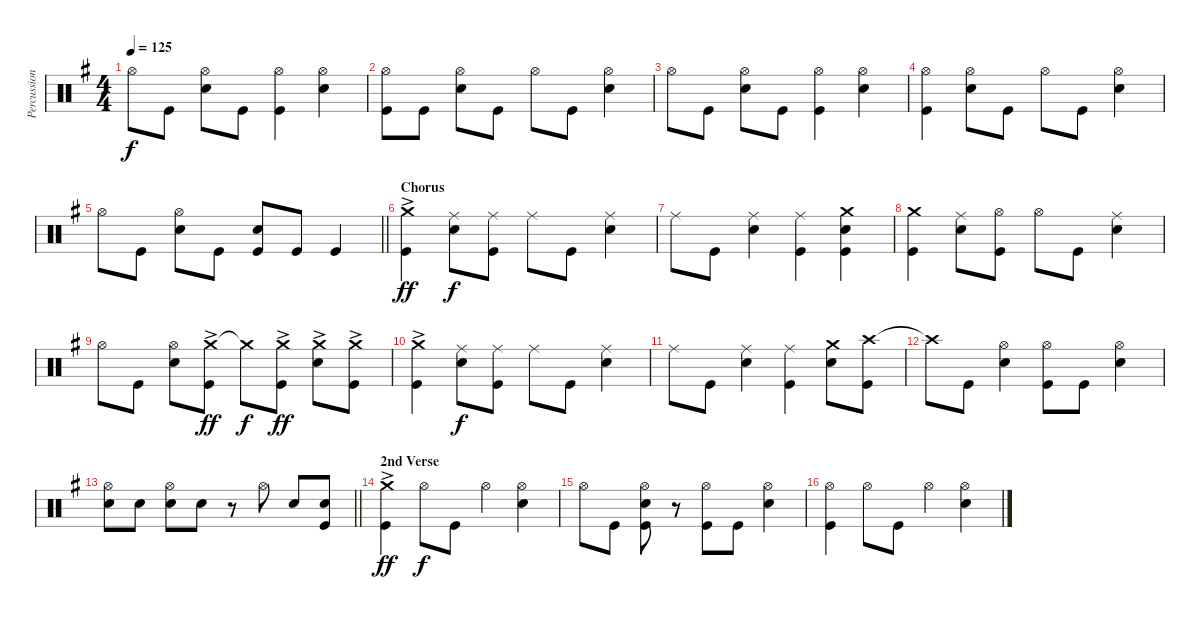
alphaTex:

\track ("Percussion" "Percussion") {instrument percussion}
\staff {score}
\articulation defaults
\ts (4 4)
\tempo 125
\clef neutral
\ks g "Hi-Hat (open)".8{dy f} "Kick (hit)".8
("Hi-Hat (open)" "Snare (hit) 2").8 "Kick (hit)".8 ("Hi-Hat (open)" "Kick (hit)").4 ("Hi-Hat (open)" "Snare (hit) 2").4 |
("Hi-Hat (open)" "Kick (hit)").8 "Kick (hit)".8 ("Hi-Hat (open)" "Snare (hit) 2").8 "Kick (hit)".8 "Hi-Hat (open)".8 "Kick (hit)".8 ("Hi-Hat (open)" "Snare (hit) 2").4 |
"Hi-Hat (open)".8 "Kick (hit)".8 ("Hi-Hat (open)" "Snare (hit) 2").8 "Kick (hit)".8 ("Hi-Hat (open)" "Kick (hit)").4 ("Hi-Hat (open)" "Snare (hit) 2").4 |
("Hi-Hat (open)" "Kick (hit)").4 ("Hi-Hat (open)" "Snare (hit) 2").8 "Kick (hit)".8 "Hi-Hat (open)".8 "Kick (hit)".8 ("Hi-Hat (open)" "Snare (hit) 2").4 |
\barLineRight lightlight "Hi-Hat (open)".8 "Kick (hit)".8
("Hi-Hat (open)" "Snare (hit) 2").8 "Kick (hit)".8 ("Snare (hit) 2" "Kick (hit)").8 "Kick (hit)".8 "Kick (hit)".4 |
\section ("" "Chorus")
("Crash medium (hit)"{ac} "Kick (hit)").4{dy ff} ("Ride (middle)" "Snare (hit) 2").8{dy f} ("Ride (middle)" "Kick (hit)").8 "Ride (middle)".8 "Kick (hit)".8 ("Ride (middle)" "Snare (hit) 2").4 |
"Ride (middle)".8 "Kick (hit)".8 ("Ride (middle)" "Snare (hit) 2").4 ("Ride (middle)" "Kick (hit)").4 ("Crash medium (hit)" "Snare (hit) 2" "Kick (hit)").4 |
("Crash medium (hit)" "Kick (hit)").4 ("Ride (middle)" "Snare (hit) 2").8 ("Hi-Hat (open)" "Kick (hit)").8 "Hi-Hat (open)".8 "Kick (hit)".8 ("Ride (middle)" "Snare (hit) 2").4 |
"Hi-Hat (open)".8 "Kick (hit)".8 ("Hi-Hat (open)" "Snare (hit) 2").8 ("Crash medium (hit)" "Kick (hit)"{ac}).8{dy ff} "Crash medium (hit)"{t}.8{dy f} ("Crash medium (hit)"{ac} "Kick (hit)"{ac}).8{dy ff} ("Crash medium (hit)"{ac} "Snare (hit) 2"{ac}).8 ("Crash medium (hit)"{ac} "Kick (hit)"{ac}).8 |
("Crash medium (hit)"{ac} "Kick (hit)").4 ("Ride (middle)" "Snare (hit) 2").8{dy f} ("Ride (middle)" "Kick (hit)").8 "Ride (middle)".8 "Kick (hit)".8 ("Ride (middle)" "Snare (hit) 2").4 |
"Ride (middle)".8 "Kick (hit)".8 ("Ride (middle)" "Snare (hit) 2").4 ("Ride (middle)" "Kick (hit)").4 ("Crash medium (hit)" "Snare (hit) 2").8 ("Crash high (hit)" "Kick (hit)").8 |
"Crash high (hit)"{t}.8 "Kick (hit)".8 ("Hi-Hat (open)" "Snare (hit) 2").4 ("Hi-Hat (open)" "Kick (hit)").8 "Kick (hit)".8 ("Hi-Hat (open)" "Snare (hit) 2").4 |
\barLineRight lightlight
("Hi-Hat (open)" "Snare (hit) 2").8 "Snare (hit) 2".8 ("Hi-Hat (open)" "Snare (hit) 2").8 "Snare (hit) 2".8 r.8 "Hi-Hat (open)".8 "Snare (hit) 2".8 ("Snare (hit) 2" "Kick (hit)").8 |
\section ("" "2nd Verse")
("Crash medium (hit)"{ac} "Kick (hit)").4{dy ff} "Hi-Hat (open)".8{dy f} "Kick (hit)".8 "Hi-Hat (open)".4 ("Hi-Hat (open)" "Snare (hit) 2").4 |
"Hi-Hat (open)".8 "Kick (hit)".8 ("Hi-Hat (open)" "Snare (hit) 2" "Kick (hit)").8 r.8 ("Hi-Hat (open)" "Kick (hit)").8 "Kick (hit)".8 ("Hi-Hat (open)" "Snare (hit) 2").4 |
("Hi-Hat (open)" "Kick (hit)").4 "Hi-Hat (open)".8 "Kick (hit)".8 "Hi-Hat (open)".4 ("Hi-Hat (open)" "Snare (hit) 2").4
